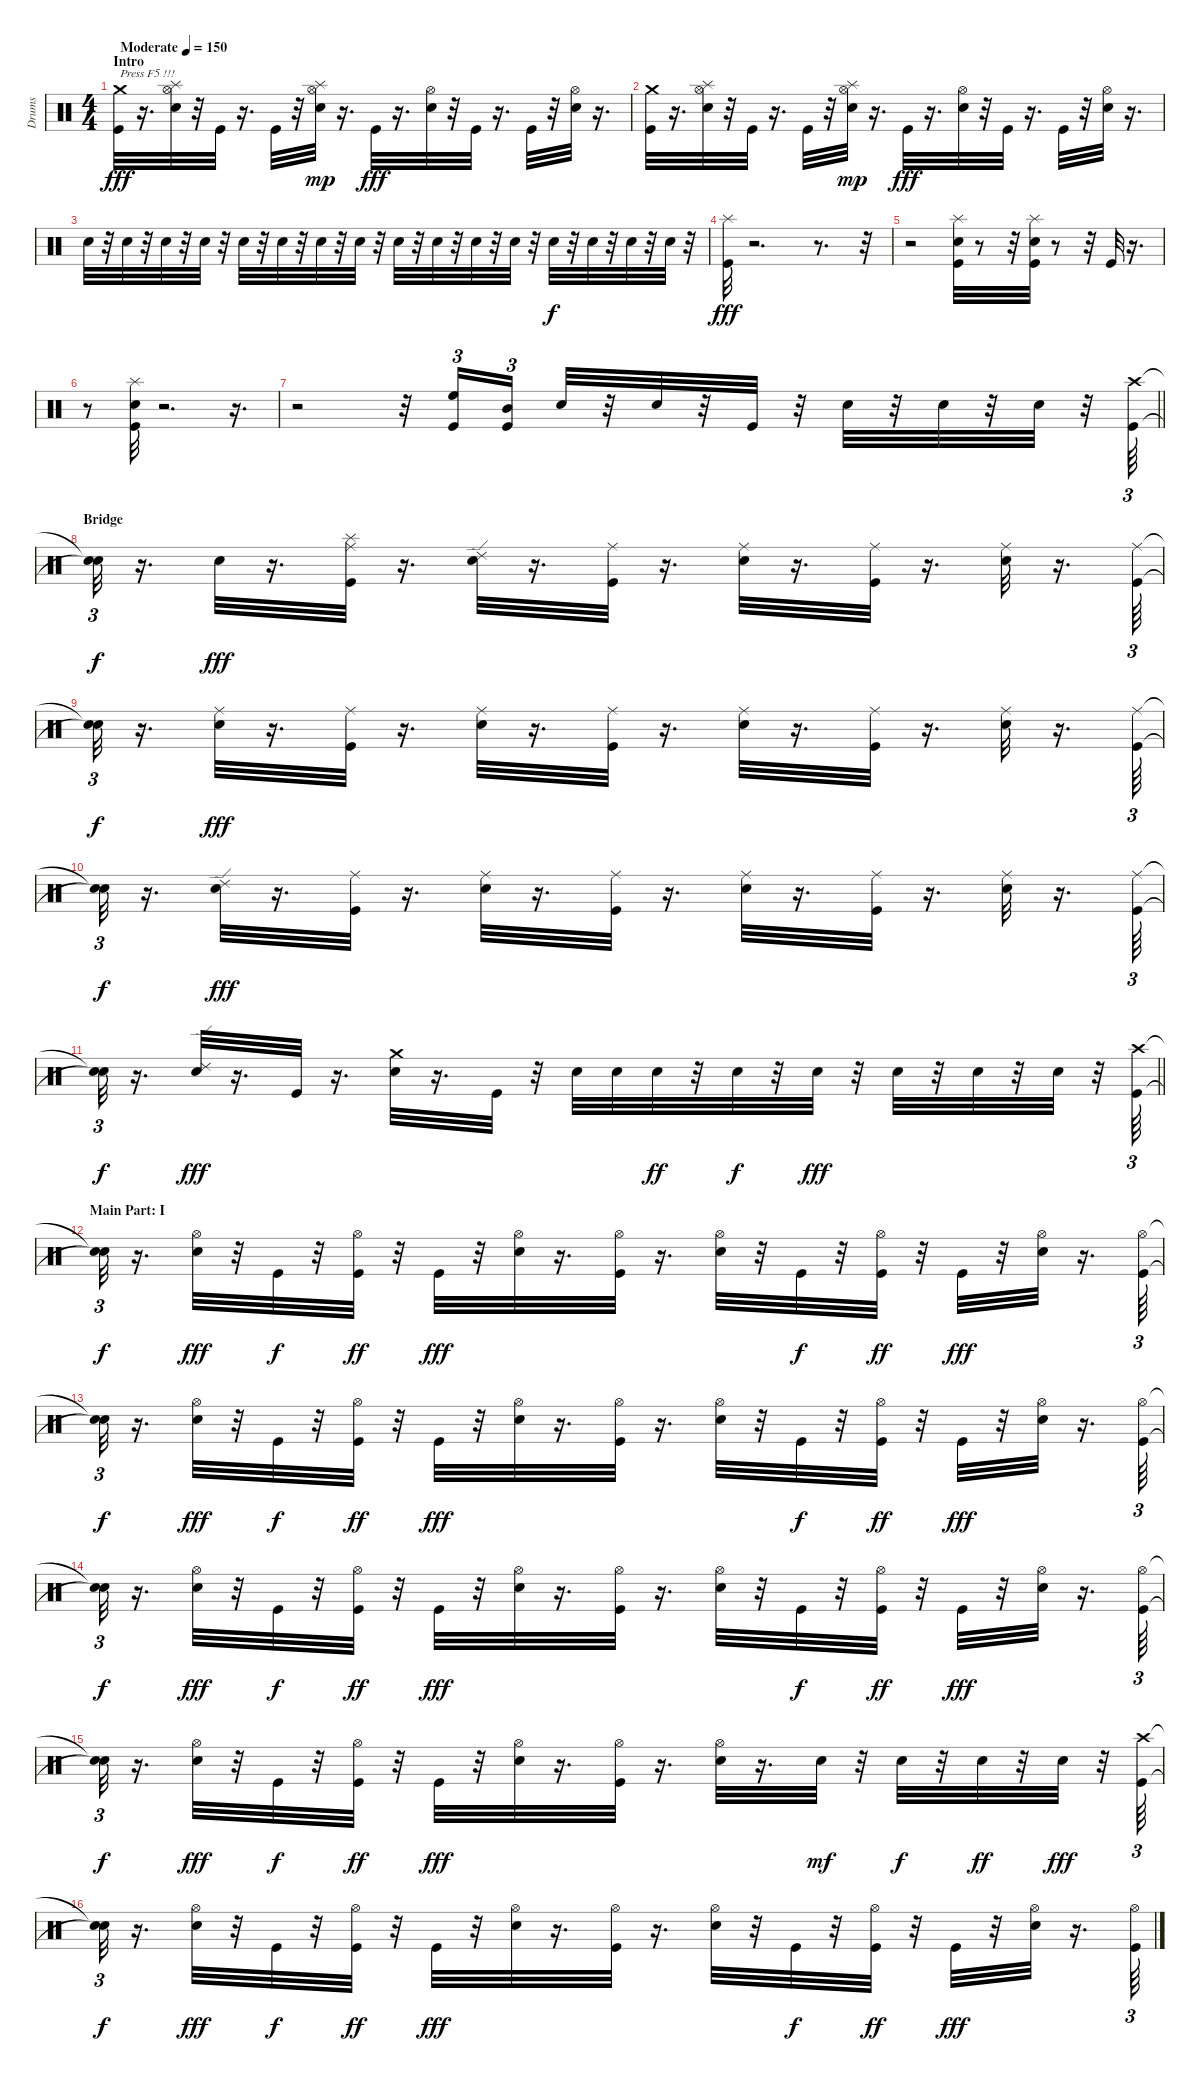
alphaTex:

\track ("Drums" "Drums") {instrument percussion}
\staff {score}
\articulation defaults
\ts (4 4)
\section ("" "Intro")
\tempo (150 "Moderate")
\clef neutral
\ks c
("Kick (hit)" "Crash medium (hit)").32{txt "Press F5 !!!" dy fff} r.16{d} ("Electric Snare (hit)" "Hi-Hat (open)" "Splash (hit)").32 r.32 "Kick (hit)".32 r.16{d} "Kick (hit)".32 r.32 ("Electric Snare (hit)" "Hi-Hat (open)" "Splash (hit)").32{dy mp} r.16{d} "Kick (hit)".32{dy fff} r.16{d} ("Electric Snare (hit)" "Hi-Hat (open)").32 r.32 "Kick (hit)".32 r.16{d} "Kick (hit)".32 r.32 ("Electric Snare (hit)" "Hi-Hat (open)").32 r.16{d} |
("Kick (hit)" "Crash medium (hit)").32 r.16{d} ("Electric Snare (hit)" "Hi-Hat (open)" "Splash (hit)").32 r.32 "Kick (hit)".32 r.16{d} "Kick (hit)".32 r.32 ("Electric Snare (hit)" "Hi-Hat (open)" "Splash (hit)").32{dy mp} r.16{d} "Kick (hit)".32{dy fff} r.16{d} ("Electric Snare (hit)" "Hi-Hat (open)").32 r.32 "Kick (hit)".32 r.16{d} "Kick (hit)".32 r.32 ("Electric Snare (hit)" "Hi-Hat (open)").32 r.16{d} |
"Electric Snare (hit)".32{volume 8} r.32 "Electric Snare (hit)".32 r.32 "Electric Snare (hit)".32 r.32 "Electric Snare (hit)".32 r.32 "Electric Snare (hit)".32 r.32 "Electric Snare (hit)".32 r.32 "Electric Snare (hit)".32 r.32 "Electric Snare (hit)".32 r.32 "Electric Snare (hit)".32{volume 16 balance 8} r.32 "Electric Snare (hit)".32 r.32 "Electric Snare (hit)".32 r.32 "Electric Snare (hit)".32 r.32 "Electric Snare (hit)".32{dy f} r.32 "Electric Snare (hit)".32 r.32 "Electric Snare (hit)".32 r.32 "Electric Snare (hit)".32 r.32 |
("Splash (hit)" "Kick (hit)").32{dy fff} r.2{d} r.8{d} r.32 |
r.2 ("Splash (hit)" "Kick (hit)" "Electric Snare (hit)").32 r.8 r.32 ("Splash (hit)" "Kick (hit)" "Electric Snare (hit)").32 r.8 r.32 "Kick (hit)".32 r.16{d} |
r.8 ("Electric Snare (hit)" "Kick (hit)" "Splash (hit)").32 r.2{d} r.16{d} |
\barLineRight lightlight
r.2 r.32 ("High Floor Tom (hit)" "Kick (hit)").16{tu (3 2)} ("Mid Tom (hit)" "Kick (hit)").16{tu (3 2) beam splitsecondary} "Electric Snare (hit)".32 r.32 "Electric Snare (hit)".32 r.32 "Kick (hit)".32 r.32 "Electric Snare (hit)".32 r.32 "Electric Snare (hit)".32 r.32 "Electric Snare (hit)".32 r.32 ("Kick (hit)" "Crash high (hit)").64{tu (3 2)} |
\section ("" "Bridge")
("Snare (hit)"{t} "Snare (hit)"{t}).32{tu (3 2) dy f} r.16{d} "Electric Snare (hit)".32{dy fff} r.16{d} ("Kick (hit)" "Ride (middle)" "Splash (hit)").32 r.16{d} ("Electric Snare (hit)" "Ride (edge) 2").32 r.16{d} ("Kick (hit)" "Ride (middle)").32 r.16{d} ("Electric Snare (hit)" "Ride (middle)").32 r.16{d} ("Kick (hit)" "Ride (middle)").32 r.16{d} ("Electric Snare (hit)" "Ride (middle)").32 r.16{d} ("Kick (hit)" "Ride (middle)").64{tu (3 2)} |
("Snare (hit)"{t} "Snare (hit)"{t}).32{tu (3 2) dy f} r.16{d} ("Electric Snare (hit)" "Ride (middle)").32{dy fff} r.16{d} ("Kick (hit)" "Ride (middle)").32 r.16{d} ("Electric Snare (hit)" "Ride (middle)").32 r.16{d} ("Kick (hit)" "Ride (middle)").32 r.16{d} ("Electric Snare (hit)" "Ride (middle)").32 r.16{d} ("Kick (hit)" "Ride (middle)").32 r.16{d} ("Electric Snare (hit)" "Ride (middle)").32 r.16{d} ("Ride (middle)" "Kick (hit)").64{tu (3 2)} |
("Snare (hit)"{t} "Snare (hit)"{t}).32{tu (3 2) dy f} r.16{d} ("Electric Snare (hit)" "Ride (edge) 2").32{dy fff} r.16{d} ("Kick (hit)" "Ride (middle)").32 r.16{d} ("Electric Snare (hit)" "Ride (middle)").32 r.16{d} ("Kick (hit)" "Ride (middle)").32 r.16{d} ("Electric Snare (hit)" "Ride (middle)").32 r.16{d} ("Kick (hit)" "Ride (middle)").32 r.16{d} ("Electric Snare (hit)" "Ride (middle)").32 r.16{d} ("Kick (hit)" "Ride (middle)").64{tu (3 2)} |
\barLineRight lightlight
("Snare (hit)"{t} "Snare (hit)"{t}).32{tu (3 2) dy f} r.16{d} ("Electric Snare (hit)" "Ride (edge) 2").32{dy fff} r.16{d} "Kick (hit)".32 r.16{d} ("Electric Snare (hit)" "Crash medium (hit)").32 r.16{d} "Kick (hit)".32 r.32 "Electric Snare (hit)".32 "Electric Snare (hit)".32 "Electric Snare (hit)".32{dy ff} r.32 "Electric Snare (hit)".32{dy f} r.32 "Electric Snare (hit)".32{dy fff} r.32 "Electric Snare (hit)".32 r.32 "Electric Snare (hit)".32 r.32 "Electric Snare (hit)".32 r.32 ("Kick (hit)" "Crash high (hit)").64{tu (3 2)} |
\section ("" "Main Part: I")
("Snare (hit)"{t} "Snare (hit)"{t}).32{tu (3 2) dy f} r.16{d} ("Electric Snare (hit)" "Hi-Hat (open)").32{dy fff} r.32 "Kick (hit)".32{dy f} r.32 ("Hi-Hat (open)" "Kick (hit)").32{dy ff} r.32 "Kick (hit)".32{dy fff} r.32 ("Electric Snare (hit)" "Hi-Hat (open)").32 r.16{d} ("Kick (hit)" "Hi-Hat (open)").32 r.16{d} ("Electric Snare (hit)" "Hi-Hat (open)").32 r.32 "Kick (hit)".32{dy f} r.32 ("Hi-Hat (open)" "Kick (hit)").32{dy ff} r.32 "Kick (hit)".32{dy fff} r.32 ("Electric Snare (hit)" "Hi-Hat (open)").32 r.16{d} ("Hi-Hat (open)" "Kick (hit)").64{tu (3 2)} |
("Snare (hit)"{t} "Snare (hit)"{t}).32{tu (3 2) dy f} r.16{d} ("Hi-Hat (open)" "Electric Snare (hit)").32{dy fff} r.32 "Kick (hit)".32{dy f} r.32 ("Hi-Hat (open)" "Kick (hit)").32{dy ff} r.32 "Kick (hit)".32{dy fff} r.32 ("Hi-Hat (open)" "Electric Snare (hit)").32 r.16{d} ("Hi-Hat (open)" "Kick (hit)").32 r.16{d} ("Hi-Hat (open)" "Electric Snare (hit)").32 r.32 "Kick (hit)".32{dy f} r.32 ("Hi-Hat (open)" "Kick (hit)").32{dy ff} r.32 "Kick (hit)".32{dy fff} r.32 ("Hi-Hat (open)" "Electric Snare (hit)").32 r.16{d} ("Hi-Hat (open)" "Kick (hit)").64{tu (3 2)} |
("Snare (hit)"{t} "Snare (hit)"{t}).32{tu (3 2) dy f} r.16{d} ("Hi-Hat (open)" "Electric Snare (hit)").32{dy fff} r.32 "Kick (hit)".32{dy f} r.32 ("Hi-Hat (open)" "Kick (hit)").32{dy ff} r.32 "Kick (hit)".32{dy fff} r.32 ("Hi-Hat (open)" "Electric Snare (hit)").32 r.16{d} ("Hi-Hat (open)" "Kick (hit)").32 r.16{d} ("Hi-Hat (open)" "Electric Snare (hit)").32 r.32 "Kick (hit)".32{dy f} r.32 ("Hi-Hat (open)" "Kick (hit)").32{dy ff} r.32 "Kick (hit)".32{dy fff} r.32 ("Hi-Hat (open)" "Electric Snare (hit)").32 r.16{d} ("Hi-Hat (open)" "Kick (hit)").64{tu (3 2)} |
("Snare (hit)"{t} "Snare (hit)"{t}).32{tu (3 2) dy f} r.16{d} ("Hi-Hat (open)" "Electric Snare (hit)").32{dy fff} r.32 "Kick (hit)".32{dy f} r.32 ("Hi-Hat (open)" "Kick (hit)").32{dy ff} r.32 "Kick (hit)".32{dy fff} r.32 ("Hi-Hat (open)" "Electric Snare (hit)").32 r.16{d} ("Hi-Hat (open)" "Kick (hit)").32 r.16{d} ("Hi-Hat (open)" "Electric Snare (hit)").32 r.16{d} "Electric Snare (hit)".32{dy mf} r.32 "Electric Snare (hit)".32{dy f} r.32 "Electric Snare (hit)".32{dy ff} r.32 "Electric Snare (hit)".32{dy fff} r.32 ("Kick (hit)" "Crash high (hit)").64{tu (3 2)} |
("Snare (hit)"{t} "Snare (hit)"{t}).32{tu (3 2) dy f} r.16{d} ("Electric Snare (hit)" "Hi-Hat (open)").32{dy fff} r.32 "Kick (hit)".32{dy f} r.32 ("Hi-Hat (open)" "Kick (hit)").32{dy ff} r.32 "Kick (hit)".32{dy fff} r.32 ("Electric Snare (hit)" "Hi-Hat (open)").32 r.16{d} ("Kick (hit)" "Hi-Hat (open)").32 r.16{d} ("Electric Snare (hit)" "Hi-Hat (open)").32 r.32 "Kick (hit)".32{dy f} r.32 ("Hi-Hat (open)" "Kick (hit)").32{dy ff} r.32 "Kick (hit)".32{dy fff} r.32 ("Electric Snare (hit)" "Hi-Hat (open)").32 r.16{d} ("Hi-Hat (open)" "Kick (hit)").64{tu (3 2)}
